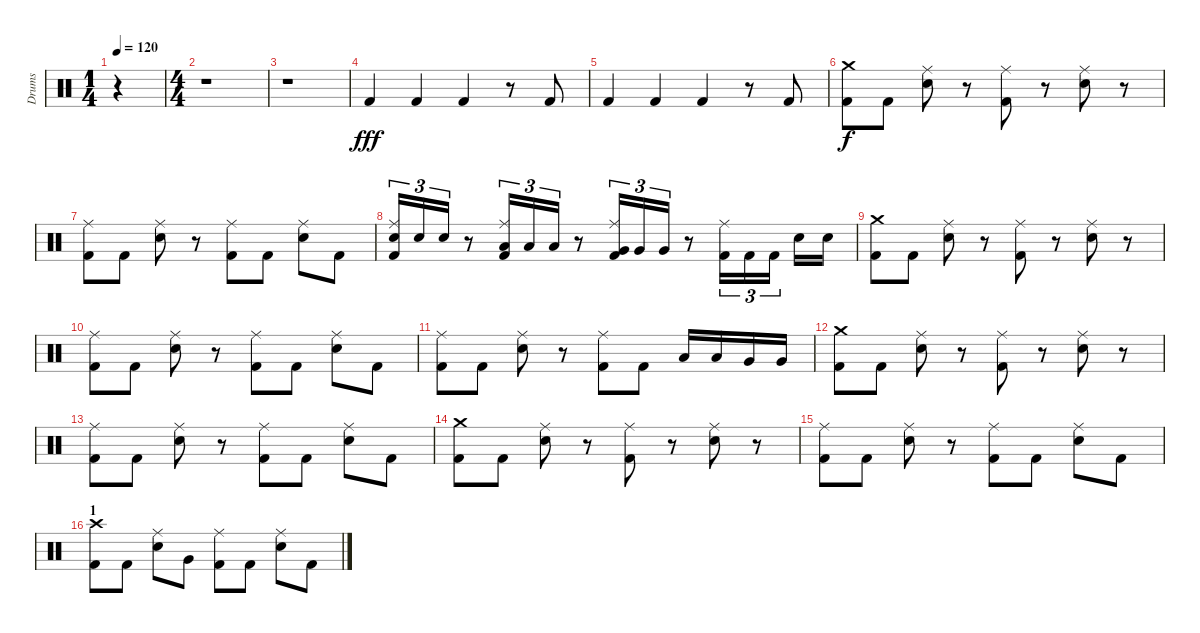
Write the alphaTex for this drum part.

\track ("Drums" "Drums") {instrument percussion}
\staff {score}
\articulation defaults
\ts (1 4)
\tempo 120
\clef neutral
\ks c
r.4{dy fff} |
\ts (4 4)
r.1 |
r.1 |
"Kick (hit) 2".4 "Kick (hit) 2".4 "Kick (hit) 2".4 r.8 "Kick (hit) 2".8 |
"Kick (hit) 2".4 "Kick (hit) 2".4 "Kick (hit) 2".4 r.8 "Kick (hit) 2".8 |
("Crash medium (hit)" "Kick (hit) 2").8{dy f} "Kick (hit) 2".8 ("Ride (middle)" "Electric Snare (hit)").8 r.8 ("Ride (middle)" "Kick (hit) 2").8 r.8 ("Ride (middle)" "Electric Snare (hit)").8 r.8 |
("Ride (middle)" "Kick (hit) 2").8 "Kick (hit) 2".8 ("Ride (middle)" "Electric Snare (hit)").8 r.8 ("Ride (middle)" "Kick (hit) 2").8 "Kick (hit) 2".8 ("Ride (middle)" "Electric Snare (hit)").8 "Kick (hit) 2".8 |
("Ride (middle)" "Electric Snare (hit)" "Kick (hit) 2").16{tu (3 2)} "Electric Snare (hit)".16{tu (3 2)} "Electric Snare (hit)".16{tu (3 2)} r.8 ("Ride (middle)" "Low Tom (hit)" "Kick (hit) 2").16{tu (3 2)} "Low Tom (hit)".16{tu (3 2)} "Low Tom (hit)".16{tu (3 2)} r.8 ("Ride (middle)" "Very Low Tom (hit)" "Kick (hit) 2").16{tu (3 2)} "Very Low Tom (hit)".16{tu (3 2)} "Very Low Tom (hit)".16{tu (3 2)} r.8 ("Ride (middle)" "Kick (hit) 2").16{tu (3 2)} "Kick (hit) 2".16{tu (3 2)} "Kick (hit) 2".16{tu (3 2)} "Electric Snare (hit)".16 "Electric Snare (hit)".16 |
("Crash medium (hit)" "Kick (hit) 2").8 "Kick (hit) 2".8 ("Ride (middle)" "Electric Snare (hit)").8 r.8 ("Ride (middle)" "Kick (hit) 2").8 r.8 ("Ride (middle)" "Electric Snare (hit)").8 r.8 |
("Ride (middle)" "Kick (hit) 2").8 "Kick (hit) 2".8 ("Ride (middle)" "Electric Snare (hit)").8 r.8 ("Ride (middle)" "Kick (hit) 2").8 "Kick (hit) 2".8 ("Ride (middle)" "Electric Snare (hit)").8 "Kick (hit) 2".8 |
("Ride (middle)" "Kick (hit) 2").8 "Kick (hit) 2".8 ("Ride (middle)" "Electric Snare (hit)").8 r.8 ("Ride (middle)" "Kick (hit) 2").8 "Kick (hit) 2".8 "Low Tom (hit)".16 "Low Tom (hit)".16 "Very Low Tom (hit)".16 "Very Low Tom (hit)".16 |
("Crash medium (hit)" "Kick (hit) 2").8 "Kick (hit) 2".8 ("Ride (middle)" "Electric Snare (hit)").8 r.8 ("Ride (middle)" "Kick (hit) 2").8 r.8 ("Ride (middle)" "Electric Snare (hit)").8 r.8 |
("Ride (middle)" "Kick (hit) 2").8 "Kick (hit) 2".8 ("Ride (middle)" "Electric Snare (hit)").8 r.8 ("Ride (middle)" "Kick (hit) 2").8 "Kick (hit) 2".8 ("Ride (middle)" "Electric Snare (hit)").8 "Kick (hit) 2".8 |
("Crash medium (hit)" "Kick (hit) 2").8 "Kick (hit) 2".8 ("Ride (middle)" "Electric Snare (hit)").8 r.8 ("Ride (middle)" "Kick (hit) 2").8 r.8 ("Ride (middle)" "Electric Snare (hit)").8 r.8 |
("Ride (middle)" "Kick (hit) 2").8 "Kick (hit) 2".8 ("Ride (middle)" "Electric Snare (hit)").8 r.8 ("Ride (middle)" "Kick (hit) 2").8 "Kick (hit) 2".8 ("Ride (middle)" "Electric Snare (hit)").8 "Kick (hit) 2".8 |
\section ("" "1")
("Crash high (hit)" "Kick (hit) 2").8 "Kick (hit) 2".8 ("Ride (middle)" "Electric Snare (hit)").8 "Very Low Tom (hit)".8 ("Ride (middle)" "Kick (hit) 2").8 "Kick (hit) 2".8 ("Ride (middle)" "Electric Snare (hit)").8 "Kick (hit) 2".8
